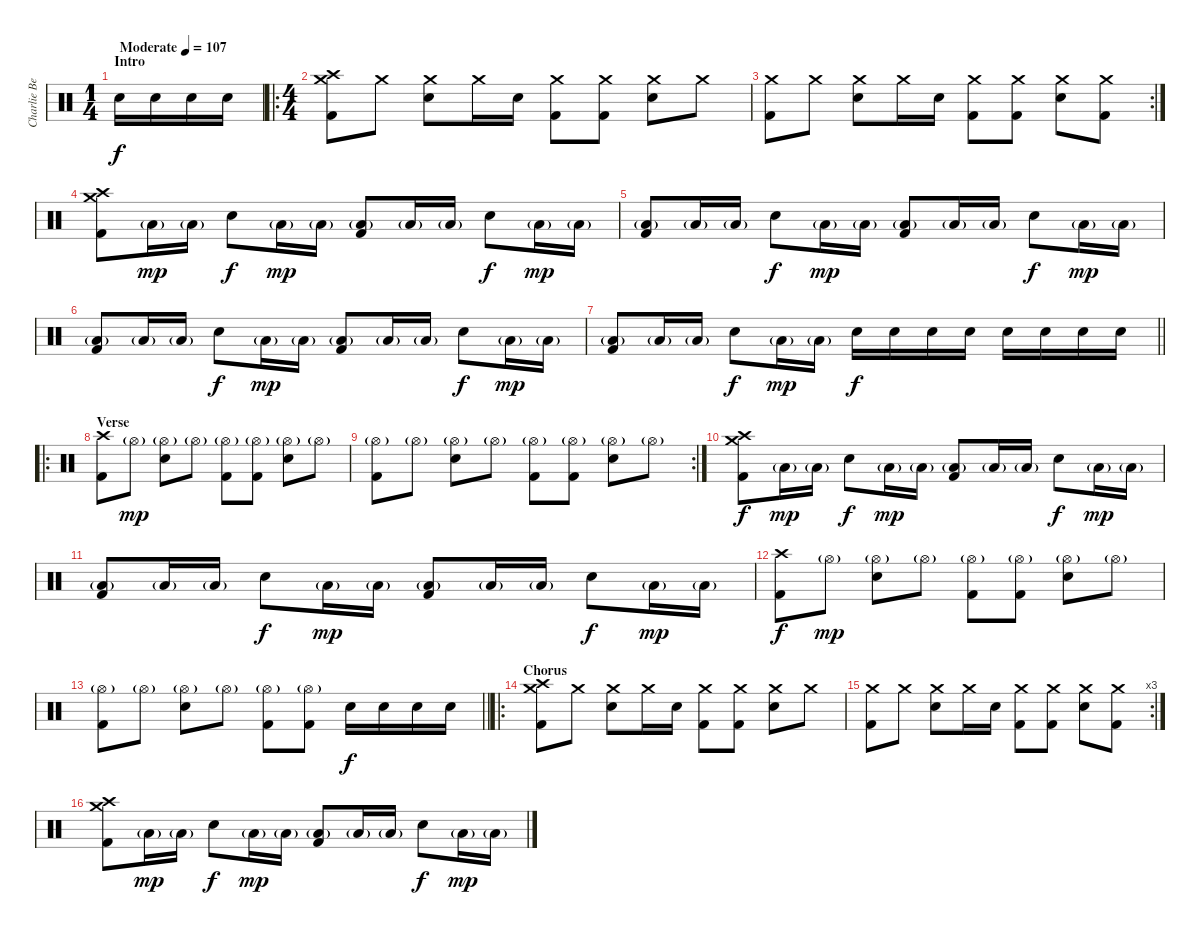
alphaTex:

\track ("Charlie Benante" "Charlie Be") {instrument percussion}
\staff {score}
\articulation defaults
\ts (1 4)
\section ("" "Intro")
\tempo (107 "Moderate")
\clef neutral
\ks c "Electric Snare (hit)".16{dy f} "Electric Snare (hit)".16 "Electric Snare (hit)".16 "Electric Snare (hit)".16
|
\ro
\ts (4 4)
("Crash high (hit)" "Crash medium (hit)" "Kick (hit) 2").8 "Crash medium (hit)".8 ("Crash medium (hit)" "Electric Snare (hit)").8 "Crash medium (hit)".16 "Electric Snare (hit)".16 ("Crash medium (hit)" "Kick (hit) 2").8 ("Crash medium (hit)" "Kick (hit) 2").8 ("Crash medium (hit)" "Electric Snare (hit)").8 "Crash medium (hit)".8 |
\rc 2
("Crash medium (hit)" "Kick (hit) 2").8 "Crash medium (hit)".8 ("Crash medium (hit)" "Electric Snare (hit)").8 "Crash medium (hit)".16 "Electric Snare (hit)".16 ("Crash medium (hit)" "Kick (hit) 2").8 ("Crash medium (hit)" "Kick (hit) 2").8 ("Crash medium (hit)" "Electric Snare (hit)").8 ("Crash medium (hit)" "Kick (hit) 2").8 |
("Crash high (hit)" "Crash medium (hit)" "Kick (hit) 2").8 "Low Tom (hit)"{g}.16{dy mp} "Low Tom (hit)"{g}.16 "Electric Snare (hit)".8{dy f} "Low Tom (hit)"{g}.16{dy mp} "Low Tom (hit)"{g}.16 ("Low Tom (hit)"{g} "Kick (hit) 2").8 "Low Tom (hit)"{g}.16 "Low Tom (hit)"{g}.16 "Electric Snare (hit)".8{dy f} "Low Tom (hit)"{g}.16{dy mp} "Low Tom (hit)"{g}.16 |
("Low Tom (hit)"{g} "Kick (hit) 2").8 "Low Tom (hit)"{g}.16 "Low Tom (hit)"{g}.16 "Electric Snare (hit)".8{dy f} "Low Tom (hit)"{g}.16{dy mp} "Low Tom (hit)"{g}.16 ("Low Tom (hit)"{g} "Kick (hit) 2").8 "Low Tom (hit)"{g}.16 "Low Tom (hit)"{g}.16 "Electric Snare (hit)".8{dy f} "Low Tom (hit)"{g}.16{dy mp} "Low Tom (hit)"{g}.16 |
("Low Tom (hit)"{g} "Kick (hit) 2").8 "Low Tom (hit)"{g}.16 "Low Tom (hit)"{g}.16 "Electric Snare (hit)".8{dy f} "Low Tom (hit)"{g}.16{dy mp} "Low Tom (hit)"{g}.16 ("Low Tom (hit)"{g} "Kick (hit) 2").8 "Low Tom (hit)"{g}.16 "Low Tom (hit)"{g}.16 "Electric Snare (hit)".8{dy f} "Low Tom (hit)"{g}.16{dy mp} "Low Tom (hit)"{g}.16 |
\barLineRight lightlight
("Low Tom (hit)"{g} "Kick (hit) 2").8 "Low Tom (hit)"{g}.16 "Low Tom (hit)"{g}.16 "Electric Snare (hit)".8{dy f} "Low Tom (hit)"{g}.16{dy mp} "Low Tom (hit)"{g}.16 "Electric Snare (hit)".16{dy f} "Electric Snare (hit)".16 "Electric Snare (hit)".16 "Electric Snare (hit)".16 "Electric Snare (hit)".16 "Electric Snare (hit)".16 "Electric Snare (hit)".16 "Electric Snare (hit)".16 |
\ro
\section ("" "Verse")
("Crash high (hit)" "Kick (hit) 2").8 "Hi-Hat (open)"{g}.8{dy mp} ("Hi-Hat (open)"{g} "Electric Snare (hit)").8 "Hi-Hat (open)"{g}.8 ("Hi-Hat (open)"{g} "Kick (hit) 2").8 ("Hi-Hat (open)"{g} "Kick (hit) 2").8 ("Hi-Hat (open)"{g} "Electric Snare (hit)").8 "Hi-Hat (open)"{g}.8 |
\rc 2
("Hi-Hat (open)"{g} "Kick (hit) 2").8 "Hi-Hat (open)"{g}.8 ("Hi-Hat (open)"{g} "Electric Snare (hit)").8 "Hi-Hat (open)"{g}.8 ("Hi-Hat (open)"{g} "Kick (hit) 2").8 ("Hi-Hat (open)"{g} "Kick (hit) 2").8 ("Hi-Hat (open)"{g} "Electric Snare (hit)").8 "Hi-Hat (open)"{g}.8 |
("Crash high (hit)" "Crash medium (hit)" "Kick (hit) 2").8{dy f} "Low Tom (hit)"{g}.16{dy mp} "Low Tom (hit)"{g}.16 "Electric Snare (hit)".8{dy f} "Low Tom (hit)"{g}.16{dy mp} "Low Tom (hit)"{g}.16 ("Low Tom (hit)"{g} "Kick (hit) 2").8 "Low Tom (hit)"{g}.16 "Low Tom (hit)"{g}.16 "Electric Snare (hit)".8{dy f} "Low Tom (hit)"{g}.16{dy mp} "Low Tom (hit)"{g}.16 |
("Low Tom (hit)"{g} "Kick (hit) 2").8 "Low Tom (hit)"{g}.16 "Low Tom (hit)"{g}.16 "Electric Snare (hit)".8{dy f} "Low Tom (hit)"{g}.16{dy mp} "Low Tom (hit)"{g}.16 ("Low Tom (hit)"{g} "Kick (hit) 2").8 "Low Tom (hit)"{g}.16 "Low Tom (hit)"{g}.16 "Electric Snare (hit)".8{dy f} "Low Tom (hit)"{g}.16{dy mp} "Low Tom (hit)"{g}.16 |
("Crash high (hit)" "Kick (hit) 2").8{dy f} "Hi-Hat (open)"{g}.8{dy mp} ("Hi-Hat (open)"{g} "Electric Snare (hit)").8 "Hi-Hat (open)"{g}.8 ("Hi-Hat (open)"{g} "Kick (hit) 2").8 ("Hi-Hat (open)"{g} "Kick (hit) 2").8 ("Hi-Hat (open)"{g} "Electric Snare (hit)").8 "Hi-Hat (open)"{g}.8 |
\barLineRight lightlight
("Hi-Hat (open)"{g} "Kick (hit) 2").8 "Hi-Hat (open)"{g}.8 ("Hi-Hat (open)"{g} "Electric Snare (hit)").8 "Hi-Hat (open)"{g}.8 ("Hi-Hat (open)"{g} "Kick (hit) 2").8 ("Hi-Hat (open)"{g} "Kick (hit) 2").8 "Electric Snare (hit)".16{dy f} "Electric Snare (hit)".16 "Electric Snare (hit)".16 "Electric Snare (hit)".16 |
\ro
\section ("" "Chorus")
("Crash high (hit)" "Crash medium (hit)" "Kick (hit) 2").8 "Crash medium (hit)".8 ("Crash medium (hit)" "Electric Snare (hit)").8 "Crash medium (hit)".16 "Electric Snare (hit)".16 ("Crash medium (hit)" "Kick (hit) 2").8 ("Crash medium (hit)" "Kick (hit) 2").8 ("Crash medium (hit)" "Electric Snare (hit)").8 "Crash medium (hit)".8 |
\rc 3
("Crash medium (hit)" "Kick (hit) 2").8 "Crash medium (hit)".8 ("Crash medium (hit)" "Electric Snare (hit)").8 "Crash medium (hit)".16 "Electric Snare (hit)".16 ("Crash medium (hit)" "Kick (hit) 2").8 ("Crash medium (hit)" "Kick (hit) 2").8 ("Crash medium (hit)" "Electric Snare (hit)").8 ("Crash medium (hit)" "Kick (hit) 2").8 |
("Crash high (hit)" "Crash medium (hit)" "Kick (hit) 2").8 "Low Tom (hit)"{g}.16{dy mp} "Low Tom (hit)"{g}.16 "Electric Snare (hit)".8{dy f} "Low Tom (hit)"{g}.16{dy mp} "Low Tom (hit)"{g}.16 ("Low Tom (hit)"{g} "Kick (hit) 2").8 "Low Tom (hit)"{g}.16 "Low Tom (hit)"{g}.16 "Electric Snare (hit)".8{dy f} "Low Tom (hit)"{g}.16{dy mp} "Low Tom (hit)"{g}.16
